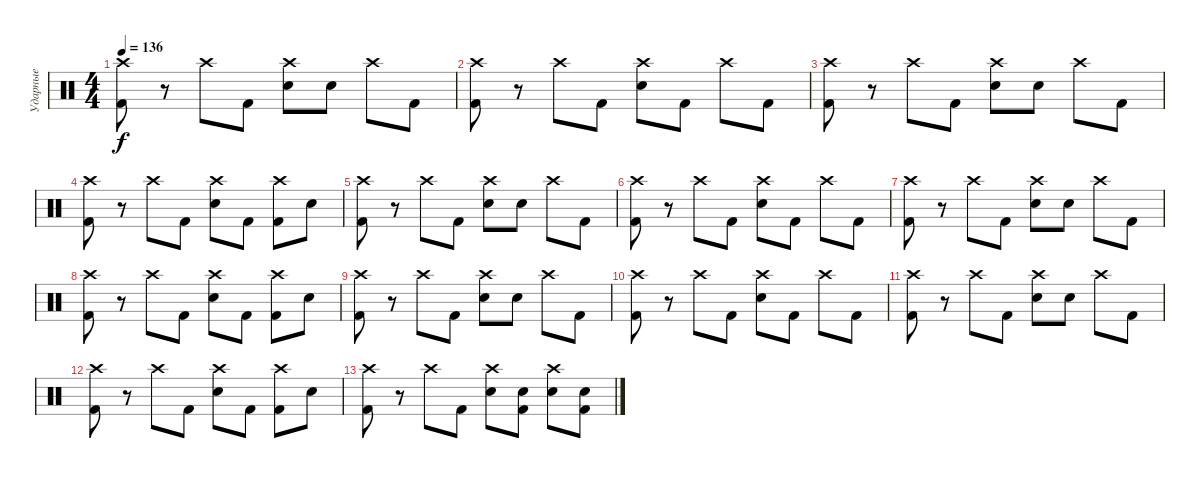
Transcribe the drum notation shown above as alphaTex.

\track ("Ударные" "Ударные") {instrument percussion}
\staff {score}
\articulation defaults
\ts (4 4)
\tempo 136
\clef neutral
\ks c
("Crash high (hit)" "Kick (hit) 2").8{dy f} r.8 "Crash high (hit)".8 "Kick (hit) 2".8 ("Crash high (hit)" "Snare (hit) 2").8 "Snare (hit) 2".8 "Crash high (hit)".8 "Kick (hit) 2".8 |
("Crash high (hit)" "Kick (hit) 2").8 r.8 "Crash high (hit)".8 "Kick (hit) 2".8 ("Crash high (hit)" "Snare (hit) 2").8 "Kick (hit) 2".8 "Crash high (hit)".8 "Kick (hit) 2".8 |
("Crash high (hit)" "Kick (hit) 2").8 r.8 "Crash high (hit)".8 "Kick (hit) 2".8 ("Crash high (hit)" "Snare (hit) 2").8 "Snare (hit) 2".8 "Crash high (hit)".8 "Kick (hit) 2".8 |
("Crash high (hit)" "Kick (hit) 2").8 r.8 "Crash high (hit)".8 "Kick (hit) 2".8 ("Crash high (hit)" "Snare (hit) 2").8 "Kick (hit) 2".8 ("Crash high (hit)" "Kick (hit) 2").8 "Snare (hit) 2".8 |
("Crash high (hit)" "Kick (hit) 2").8 r.8 "Crash high (hit)".8 "Kick (hit) 2".8 ("Crash high (hit)" "Snare (hit) 2").8 "Snare (hit) 2".8 "Crash high (hit)".8 "Kick (hit) 2".8 |
("Crash high (hit)" "Kick (hit) 2").8 r.8 "Crash high (hit)".8 "Kick (hit) 2".8 ("Crash high (hit)" "Snare (hit) 2").8 "Kick (hit) 2".8 "Crash high (hit)".8 "Kick (hit) 2".8 |
("Crash high (hit)" "Kick (hit) 2").8 r.8 "Crash high (hit)".8 "Kick (hit) 2".8 ("Crash high (hit)" "Snare (hit) 2").8 "Snare (hit) 2".8 "Crash high (hit)".8 "Kick (hit) 2".8 |
("Crash high (hit)" "Kick (hit) 2").8 r.8 "Crash high (hit)".8 "Kick (hit) 2".8 ("Crash high (hit)" "Snare (hit) 2").8 "Kick (hit) 2".8 ("Crash high (hit)" "Kick (hit) 2").8 "Snare (hit) 2".8 |
("Crash high (hit)" "Kick (hit) 2").8 r.8 "Crash high (hit)".8 "Kick (hit) 2".8 ("Crash high (hit)" "Snare (hit) 2").8 "Snare (hit) 2".8 "Crash high (hit)".8 "Kick (hit) 2".8 |
("Crash high (hit)" "Kick (hit) 2").8 r.8 "Crash high (hit)".8 "Kick (hit) 2".8 ("Crash high (hit)" "Snare (hit) 2").8 "Kick (hit) 2".8 "Crash high (hit)".8 "Kick (hit) 2".8 |
("Crash high (hit)" "Kick (hit) 2").8 r.8 "Crash high (hit)".8 "Kick (hit) 2".8 ("Crash high (hit)" "Snare (hit) 2").8 "Snare (hit) 2".8 "Crash high (hit)".8 "Kick (hit) 2".8 |
("Crash high (hit)" "Kick (hit) 2").8 r.8 "Crash high (hit)".8 "Kick (hit) 2".8 ("Crash high (hit)" "Snare (hit) 2").8 "Kick (hit) 2".8 ("Crash high (hit)" "Kick (hit) 2").8 "Snare (hit) 2".8 |
("Crash high (hit)" "Kick (hit) 2").8 r.8 "Crash high (hit)".8 "Kick (hit) 2".8 ("Crash high (hit)" "Snare (hit) 2").8 ("Snare (hit) 2" "Kick (hit) 2").8 ("Crash high (hit)" "Snare (hit) 2").8 ("Snare (hit) 2" "Kick (hit) 2").8
